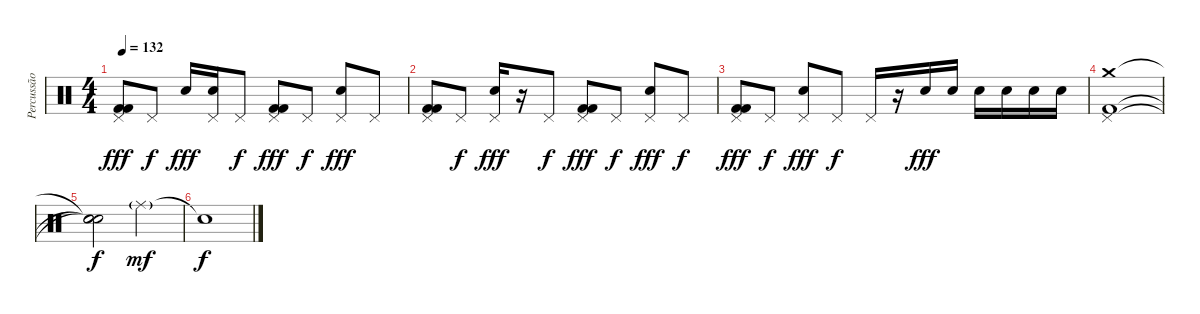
\track ("Percussão" "Percussão") {instrument percussion}
\staff {score}
\articulation defaults
\ts (4 4)
\tempo 132
\clef neutral
\ks c
("Kick (hit) 2" "Kick (hit) 2" "Pedal Hi-Hat (hit)").8{dy fff} "Pedal Hi-Hat (hit)".8{dy f} "Electric Snare (hit)".16{dy fff} ("Electric Snare (hit)" "Pedal Hi-Hat (hit)").16 "Pedal Hi-Hat (hit)".8{dy f} ("Kick (hit) 2" "Kick (hit) 2" "Pedal Hi-Hat (hit)").8{dy fff} "Pedal Hi-Hat (hit)".8{dy f} ("Electric Snare (hit)" "Pedal Hi-Hat (hit)").8{dy fff} "Pedal Hi-Hat (hit)".8 |
("Kick (hit) 2" "Kick (hit) 2" "Pedal Hi-Hat (hit)").8 "Pedal Hi-Hat (hit)".8{dy f} ("Electric Snare (hit)" "Pedal Hi-Hat (hit)").16{dy fff} r.16 "Pedal Hi-Hat (hit)".8{dy f} ("Kick (hit) 2" "Kick (hit) 2" "Pedal Hi-Hat (hit)").8{dy fff} "Pedal Hi-Hat (hit)".8{dy f} ("Electric Snare (hit)" "Pedal Hi-Hat (hit)").8{dy fff} "Pedal Hi-Hat (hit)".8{dy f} |
("Kick (hit) 2" "Kick (hit) 2" "Pedal Hi-Hat (hit)").8{dy fff} "Pedal Hi-Hat (hit)".8{dy f} ("Electric Snare (hit)" "Pedal Hi-Hat (hit)").8{dy fff} "Pedal Hi-Hat (hit)".8{dy f} "Pedal Hi-Hat (hit)".16 r.16 "Electric Snare (hit)".16{dy fff} "Electric Snare (hit)".16 "Electric Snare (hit)".16 "Electric Snare (hit)".16 "Electric Snare (hit)".16 "Electric Snare (hit)".16 |
("Kick (hit) 2" "Crash medium (hit)" "Pedal Hi-Hat (hit)").1 |
("Snare (hit)"{t} "Snare (hit)"{t} "Snare (hit)"{t}).2{dy f} "Ride (middle)"{g}.2{dy mf} |
"Snare (hit)"{t}.1{dy f}
